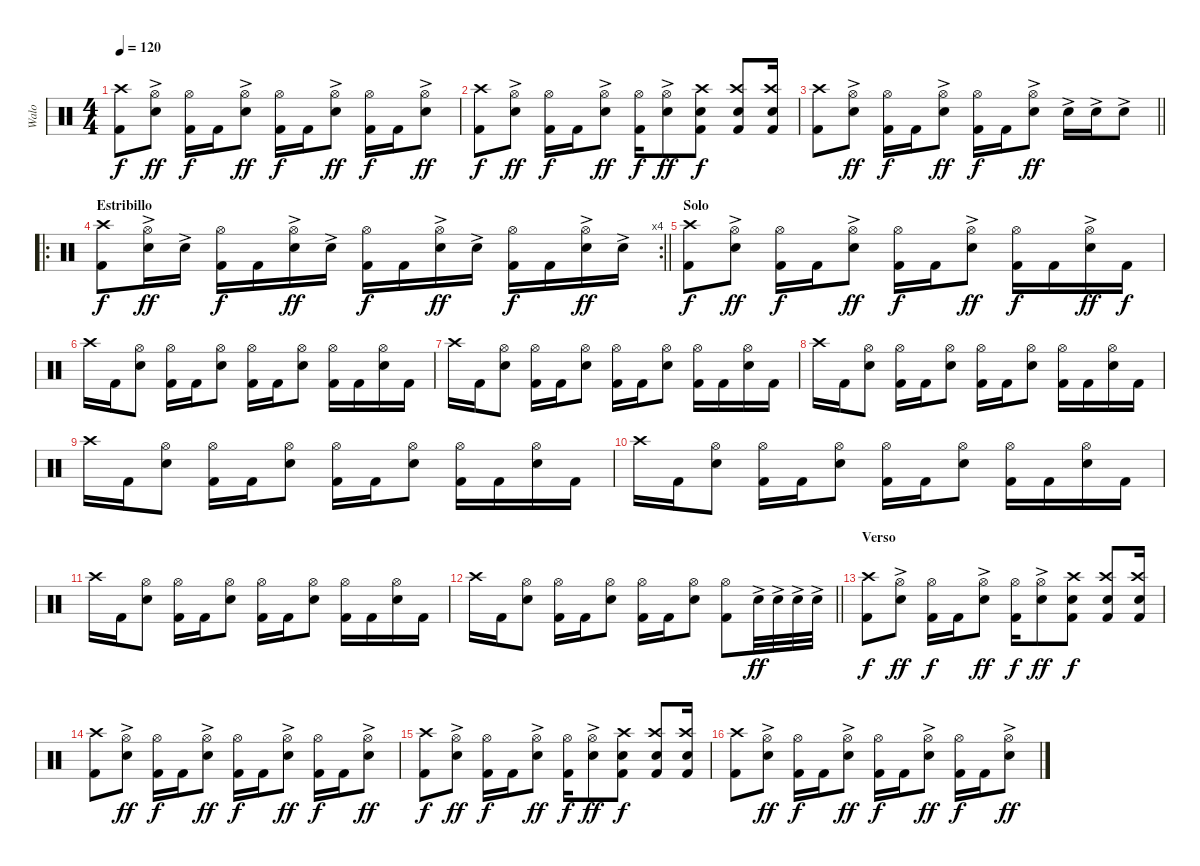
\track ("Walo" "Walo") {instrument percussion}
\staff {score}
\articulation defaults
\ts (4 4)
\tempo 120
\clef neutral
\ks c
("Kick (hit) 2" "Crash high (hit)").8{dy f} ("Hi-Hat (open)" "Electric Snare (hit)"{ac}).8{dy ff} ("Hi-Hat (open)" "Kick (hit) 2").16{dy f} "Kick (hit) 2".16 ("Hi-Hat (open)" "Electric Snare (hit)"{ac}).8{dy ff} ("Hi-Hat (open)" "Kick (hit) 2").16{dy f} "Kick (hit) 2".16 ("Hi-Hat (open)" "Electric Snare (hit)"{ac}).8{dy ff} ("Hi-Hat (open)" "Kick (hit) 2").16{dy f} "Kick (hit) 2".16 ("Hi-Hat (open)" "Electric Snare (hit)"{ac}).8{dy ff} |
("Crash high (hit)" "Kick (hit) 2").8{dy f} ("Hi-Hat (open)" "Electric Snare (hit)"{ac}).8{dy ff} ("Hi-Hat (open)" "Kick (hit) 2").16{dy f} "Kick (hit) 2".16 ("Hi-Hat (open)" "Electric Snare (hit)"{ac}).8{dy ff} ("Kick (hit) 2" "Hi-Hat (open)").16{dy f} ("Hi-Hat (open)" "Electric Snare (hit)"{ac}).8{dy ff} ("Kick (hit) 2" "Crash high (hit)" "Electric Snare (hit)").8{dy f} ("Kick (hit) 2" "Crash high (hit)" "Electric Snare (hit)").8 ("Electric Snare (hit)" "Kick (hit) 2" "Crash high (hit)").16 |
\barLineRight lightlight
("Kick (hit) 2" "Crash high (hit)").8 ("Hi-Hat (open)" "Electric Snare (hit)"{ac}).8{dy ff} ("Hi-Hat (open)" "Kick (hit) 2").16{dy f} "Kick (hit) 2".16 ("Hi-Hat (open)" "Electric Snare (hit)"{ac}).8{dy ff} ("Hi-Hat (open)" "Kick (hit) 2").16{dy f} "Kick (hit) 2".16 ("Hi-Hat (open)" "Electric Snare (hit)"{ac}).8{dy ff} "Electric Snare (hit)"{ac}.16 "Electric Snare (hit)"{ac}.16 "Electric Snare (hit)"{ac}.8 |
\ro
\rc 4
\section ("" "Estribillo")
\barLineRight lightlight
("Crash high (hit)" "Kick (hit) 2").8{dy f} ("Hi-Hat (open)" "Electric Snare (hit)"{ac}).16{dy ff} "Electric Snare (hit)"{ac}.16 ("Hi-Hat (open)" "Kick (hit) 2").16{dy f} "Kick (hit) 2".16 ("Hi-Hat (open)" "Electric Snare (hit)"{ac}).16{dy ff} "Electric Snare (hit)"{ac}.16 ("Hi-Hat (open)" "Kick (hit) 2").16{dy f} "Kick (hit) 2".16 ("Hi-Hat (open)" "Electric Snare (hit)"{ac}).16{dy ff} "Electric Snare (hit)"{ac}.16 ("Hi-Hat (open)" "Kick (hit) 2").16{dy f} "Kick (hit) 2".16 ("Hi-Hat (open)" "Electric Snare (hit)"{ac}).16{dy ff} "Electric Snare (hit)"{ac}.16 |
\section ("" "Solo")
("Crash high (hit)" "Kick (hit) 2").8{dy f} ("Hi-Hat (open)" "Electric Snare (hit)"{ac}).8{dy ff} ("Hi-Hat (open)" "Kick (hit) 2").16{dy f} "Kick (hit) 2".16 ("Hi-Hat (open)" "Electric Snare (hit)"{ac}).8{dy ff} ("Hi-Hat (open)" "Kick (hit) 2").16{dy f} "Kick (hit) 2".16 ("Hi-Hat (open)" "Electric Snare (hit)"{ac}).8{dy ff} ("Hi-Hat (open)" "Kick (hit) 2").16{dy f} "Kick (hit) 2".16 ("Hi-Hat (open)" "Electric Snare (hit)"{ac}).16{dy ff} "Kick (hit) 2".16{dy f} |
"Crash high (hit)".16 "Kick (hit) 2".16 ("Hi-Hat (open)" "Electric Snare (hit)").8 ("Hi-Hat (open)" "Kick (hit) 2").16 "Kick (hit) 2".16 ("Hi-Hat (open)" "Electric Snare (hit)").8 ("Hi-Hat (open)" "Kick (hit) 2").16 "Kick (hit) 2".16 ("Hi-Hat (open)" "Electric Snare (hit)").8 ("Hi-Hat (open)" "Kick (hit) 2").16 "Kick (hit) 2".16 ("Hi-Hat (open)" "Electric Snare (hit)").16 "Kick (hit) 2".16 |
"Crash high (hit)".16 "Kick (hit) 2".16 ("Hi-Hat (open)" "Electric Snare (hit)").8 ("Hi-Hat (open)" "Kick (hit) 2").16 "Kick (hit) 2".16 ("Hi-Hat (open)" "Electric Snare (hit)").8 ("Hi-Hat (open)" "Kick (hit) 2").16 "Kick (hit) 2".16 ("Hi-Hat (open)" "Electric Snare (hit)").8 ("Hi-Hat (open)" "Kick (hit) 2").16 "Kick (hit) 2".16 ("Hi-Hat (open)" "Electric Snare (hit)").16 "Kick (hit) 2".16 |
"Crash high (hit)".16 "Kick (hit) 2".16 ("Hi-Hat (open)" "Electric Snare (hit)").8 ("Hi-Hat (open)" "Kick (hit) 2").16 "Kick (hit) 2".16 ("Hi-Hat (open)" "Electric Snare (hit)").8 ("Hi-Hat (open)" "Kick (hit) 2").16 "Kick (hit) 2".16 ("Hi-Hat (open)" "Electric Snare (hit)").8 ("Hi-Hat (open)" "Kick (hit) 2").16 "Kick (hit) 2".16 ("Hi-Hat (open)" "Electric Snare (hit)").16 "Kick (hit) 2".16 |
"Crash high (hit)".16 "Kick (hit) 2".16 ("Hi-Hat (open)" "Electric Snare (hit)").8 ("Hi-Hat (open)" "Kick (hit) 2").16 "Kick (hit) 2".16 ("Hi-Hat (open)" "Electric Snare (hit)").8 ("Hi-Hat (open)" "Kick (hit) 2").16 "Kick (hit) 2".16 ("Hi-Hat (open)" "Electric Snare (hit)").8 ("Hi-Hat (open)" "Kick (hit) 2").16 "Kick (hit) 2".16 ("Hi-Hat (open)" "Electric Snare (hit)").16 "Kick (hit) 2".16 |
"Crash high (hit)".16 "Kick (hit) 2".16 ("Hi-Hat (open)" "Electric Snare (hit)").8 ("Hi-Hat (open)" "Kick (hit) 2").16 "Kick (hit) 2".16 ("Hi-Hat (open)" "Electric Snare (hit)").8 ("Hi-Hat (open)" "Kick (hit) 2").16 "Kick (hit) 2".16 ("Hi-Hat (open)" "Electric Snare (hit)").8 ("Hi-Hat (open)" "Kick (hit) 2").16 "Kick (hit) 2".16 ("Hi-Hat (open)" "Electric Snare (hit)").16 "Kick (hit) 2".16 |
"Crash high (hit)".16 "Kick (hit) 2".16 ("Hi-Hat (open)" "Electric Snare (hit)").8 ("Hi-Hat (open)" "Kick (hit) 2").16 "Kick (hit) 2".16 ("Hi-Hat (open)" "Electric Snare (hit)").8 ("Hi-Hat (open)" "Kick (hit) 2").16 "Kick (hit) 2".16 ("Hi-Hat (open)" "Electric Snare (hit)").8 ("Hi-Hat (open)" "Kick (hit) 2").16 "Kick (hit) 2".16 ("Hi-Hat (open)" "Electric Snare (hit)").16 "Kick (hit) 2".16 |
\barLineRight lightlight "Crash high (hit)".16 "Kick (hit) 2".16
("Hi-Hat (open)" "Electric Snare (hit)").8 ("Hi-Hat (open)" "Kick (hit) 2").16 "Kick (hit) 2".16 ("Hi-Hat (open)" "Electric Snare (hit)").8 ("Hi-Hat (open)" "Kick (hit) 2").16 "Kick (hit) 2".16 ("Hi-Hat (open)" "Electric Snare (hit)").8 ("Hi-Hat (open)" "Kick (hit) 2").8 "Electric Snare (hit)"{ac}.32{dy ff} "Electric Snare (hit)"{ac}.32 "Electric Snare (hit)"{ac}.32 "Electric Snare (hit)"{ac}.32 |
\section ("" "Verso")
("Crash high (hit)" "Kick (hit) 2").8{dy f} ("Hi-Hat (open)" "Electric Snare (hit)"{ac}).8{dy ff} ("Hi-Hat (open)" "Kick (hit) 2").16{dy f} "Kick (hit) 2".16 ("Hi-Hat (open)" "Electric Snare (hit)"{ac}).8{dy ff} ("Kick (hit) 2" "Hi-Hat (open)").16{dy f} ("Hi-Hat (open)" "Electric Snare (hit)"{ac}).8{dy ff} ("Kick (hit) 2" "Crash high (hit)" "Electric Snare (hit)").8{dy f} ("Kick (hit) 2" "Crash high (hit)" "Electric Snare (hit)").8 ("Electric Snare (hit)" "Kick (hit) 2" "Crash high (hit)").16 |
("Kick (hit) 2" "Crash high (hit)").8 ("Hi-Hat (open)" "Electric Snare (hit)"{ac}).8{dy ff} ("Hi-Hat (open)" "Kick (hit) 2").16{dy f} "Kick (hit) 2".16 ("Hi-Hat (open)" "Electric Snare (hit)"{ac}).8{dy ff} ("Hi-Hat (open)" "Kick (hit) 2").16{dy f} "Kick (hit) 2".16 ("Hi-Hat (open)" "Electric Snare (hit)"{ac}).8{dy ff} ("Hi-Hat (open)" "Kick (hit) 2").16{dy f} "Kick (hit) 2".16 ("Hi-Hat (open)" "Electric Snare (hit)"{ac}).8{dy ff} |
("Crash high (hit)" "Kick (hit) 2").8{dy f} ("Hi-Hat (open)" "Electric Snare (hit)"{ac}).8{dy ff} ("Hi-Hat (open)" "Kick (hit) 2").16{dy f} "Kick (hit) 2".16 ("Hi-Hat (open)" "Electric Snare (hit)"{ac}).8{dy ff} ("Kick (hit) 2" "Hi-Hat (open)").16{dy f} ("Hi-Hat (open)" "Electric Snare (hit)"{ac}).8{dy ff} ("Kick (hit) 2" "Crash high (hit)" "Electric Snare (hit)").8{dy f} ("Kick (hit) 2" "Crash high (hit)" "Electric Snare (hit)").8 ("Electric Snare (hit)" "Kick (hit) 2" "Crash high (hit)").16 |
("Kick (hit) 2" "Crash high (hit)").8 ("Hi-Hat (open)" "Electric Snare (hit)"{ac}).8{dy ff} ("Hi-Hat (open)" "Kick (hit) 2").16{dy f} "Kick (hit) 2".16 ("Hi-Hat (open)" "Electric Snare (hit)"{ac}).8{dy ff} ("Hi-Hat (open)" "Kick (hit) 2").16{dy f} "Kick (hit) 2".16 ("Hi-Hat (open)" "Electric Snare (hit)"{ac}).8{dy ff} ("Hi-Hat (open)" "Kick (hit) 2").16{dy f} "Kick (hit) 2".16 ("Hi-Hat (open)" "Electric Snare (hit)"{ac}).8{dy ff}
